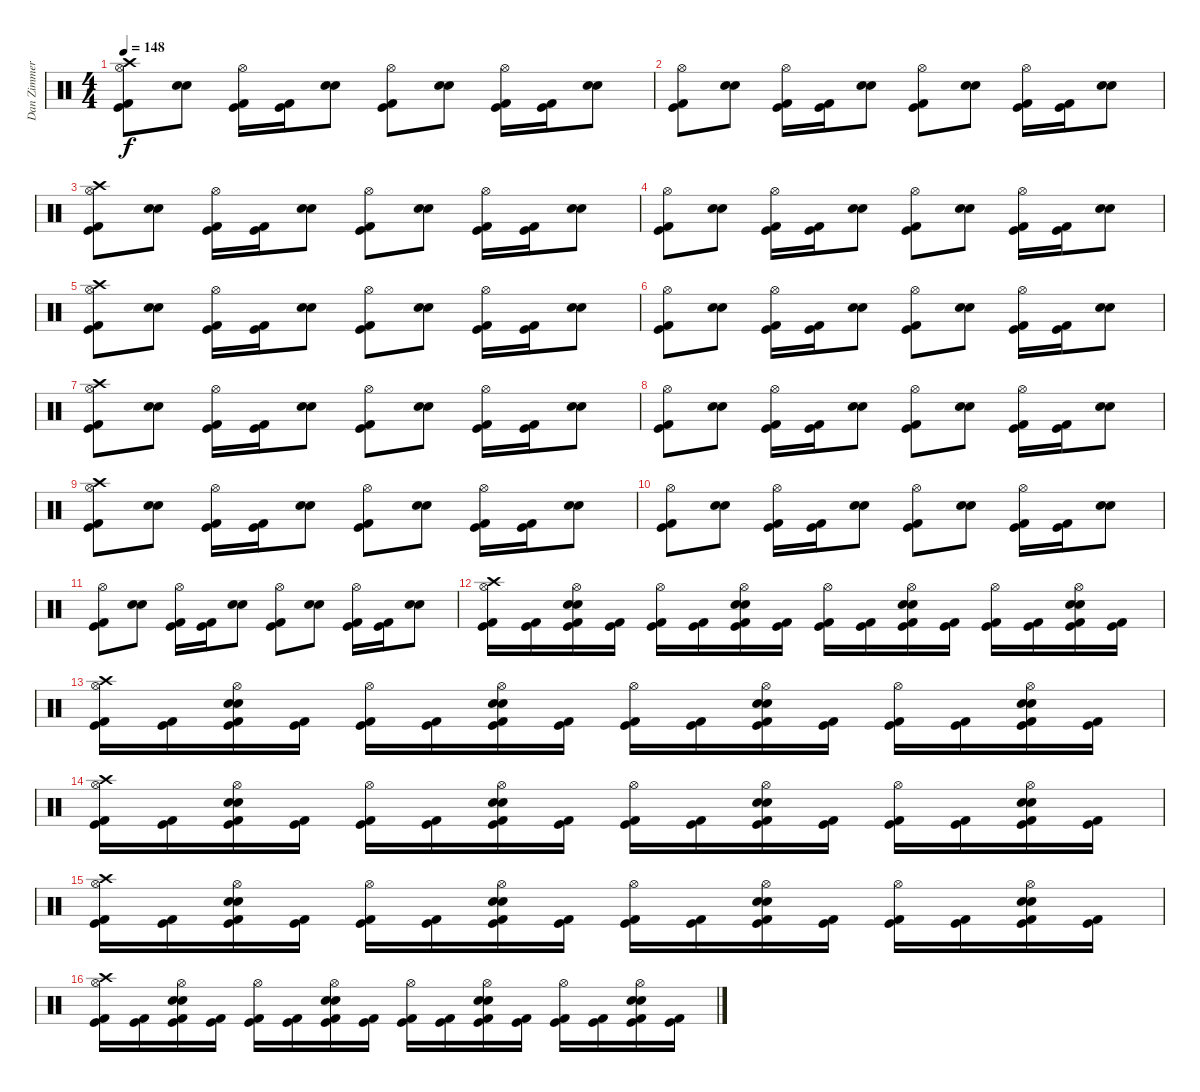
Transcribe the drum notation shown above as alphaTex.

\track ("Dan Zimmerman<Drum>" "Dan Zimmer") {instrument percussion}
\staff {score}
\articulation defaults
\ts (4 4)
\tempo 148
\clef neutral
\ks c
("Hi-Hat (open)" "Crash high (hit)" "Kick (hit) 2" "Kick (hit)").8{dy f} ("Snare (hit) 2" "Electric Snare (hit)").8 ("Hi-Hat (open)" "Kick (hit) 2" "Kick (hit)").16 ("Kick (hit) 2" "Kick (hit)").16 ("Snare (hit) 2" "Electric Snare (hit)").8 ("Hi-Hat (open)" "Kick (hit) 2" "Kick (hit)").8 ("Snare (hit) 2" "Electric Snare (hit)").8 ("Hi-Hat (open)" "Kick (hit) 2" "Kick (hit)").16 ("Kick (hit) 2" "Kick (hit)").16 ("Snare (hit) 2" "Electric Snare (hit)").8 |
("Hi-Hat (open)" "Kick (hit) 2" "Kick (hit)").8 ("Snare (hit) 2" "Electric Snare (hit)").8 ("Hi-Hat (open)" "Kick (hit) 2" "Kick (hit)").16 ("Kick (hit) 2" "Kick (hit)").16 ("Snare (hit) 2" "Electric Snare (hit)").8 ("Hi-Hat (open)" "Kick (hit) 2" "Kick (hit)").8 ("Snare (hit) 2" "Electric Snare (hit)").8 ("Hi-Hat (open)" "Kick (hit) 2" "Kick (hit)").16 ("Kick (hit) 2" "Kick (hit)").16 ("Snare (hit) 2" "Electric Snare (hit)").8 |
("Hi-Hat (open)" "Crash high (hit)" "Kick (hit) 2" "Kick (hit)").8 ("Snare (hit) 2" "Electric Snare (hit)").8 ("Hi-Hat (open)" "Kick (hit) 2" "Kick (hit)").16 ("Kick (hit) 2" "Kick (hit)").16 ("Snare (hit) 2" "Electric Snare (hit)").8 ("Hi-Hat (open)" "Kick (hit) 2" "Kick (hit)").8 ("Snare (hit) 2" "Electric Snare (hit)").8 ("Hi-Hat (open)" "Kick (hit) 2" "Kick (hit)").16 ("Kick (hit) 2" "Kick (hit)").16 ("Snare (hit) 2" "Electric Snare (hit)").8 |
("Hi-Hat (open)" "Kick (hit) 2" "Kick (hit)").8 ("Snare (hit) 2" "Electric Snare (hit)").8 ("Hi-Hat (open)" "Kick (hit) 2" "Kick (hit)").16 ("Kick (hit) 2" "Kick (hit)").16 ("Snare (hit) 2" "Electric Snare (hit)").8 ("Hi-Hat (open)" "Kick (hit) 2" "Kick (hit)").8 ("Snare (hit) 2" "Electric Snare (hit)").8 ("Hi-Hat (open)" "Kick (hit) 2" "Kick (hit)").16 ("Kick (hit) 2" "Kick (hit)").16 ("Snare (hit) 2" "Electric Snare (hit)").8 |
("Hi-Hat (open)" "Crash high (hit)" "Kick (hit) 2" "Kick (hit)").8 ("Snare (hit) 2" "Electric Snare (hit)").8 ("Hi-Hat (open)" "Kick (hit) 2" "Kick (hit)").16 ("Kick (hit) 2" "Kick (hit)").16 ("Snare (hit) 2" "Electric Snare (hit)").8 ("Hi-Hat (open)" "Kick (hit) 2" "Kick (hit)").8 ("Snare (hit) 2" "Electric Snare (hit)").8 ("Hi-Hat (open)" "Kick (hit) 2" "Kick (hit)").16 ("Kick (hit) 2" "Kick (hit)").16 ("Snare (hit) 2" "Electric Snare (hit)").8 |
("Hi-Hat (open)" "Kick (hit) 2" "Kick (hit)").8 ("Snare (hit) 2" "Electric Snare (hit)").8 ("Hi-Hat (open)" "Kick (hit) 2" "Kick (hit)").16 ("Kick (hit) 2" "Kick (hit)").16 ("Snare (hit) 2" "Electric Snare (hit)").8 ("Hi-Hat (open)" "Kick (hit) 2" "Kick (hit)").8 ("Snare (hit) 2" "Electric Snare (hit)").8 ("Hi-Hat (open)" "Kick (hit) 2" "Kick (hit)").16 ("Kick (hit) 2" "Kick (hit)").16 ("Snare (hit) 2" "Electric Snare (hit)").8 |
("Hi-Hat (open)" "Crash high (hit)" "Kick (hit) 2" "Kick (hit)").8 ("Snare (hit) 2" "Electric Snare (hit)").8 ("Hi-Hat (open)" "Kick (hit) 2" "Kick (hit)").16 ("Kick (hit) 2" "Kick (hit)").16 ("Snare (hit) 2" "Electric Snare (hit)").8 ("Hi-Hat (open)" "Kick (hit) 2" "Kick (hit)").8 ("Snare (hit) 2" "Electric Snare (hit)").8 ("Hi-Hat (open)" "Kick (hit) 2" "Kick (hit)").16 ("Kick (hit) 2" "Kick (hit)").16 ("Snare (hit) 2" "Electric Snare (hit)").8 |
("Hi-Hat (open)" "Kick (hit) 2" "Kick (hit)").8 ("Snare (hit) 2" "Electric Snare (hit)").8 ("Hi-Hat (open)" "Kick (hit) 2" "Kick (hit)").16 ("Kick (hit) 2" "Kick (hit)").16 ("Snare (hit) 2" "Electric Snare (hit)").8 ("Hi-Hat (open)" "Kick (hit) 2" "Kick (hit)").8 ("Snare (hit) 2" "Electric Snare (hit)").8 ("Hi-Hat (open)" "Kick (hit) 2" "Kick (hit)").16 ("Kick (hit) 2" "Kick (hit)").16 ("Snare (hit) 2" "Electric Snare (hit)").8 |
("Hi-Hat (open)" "Crash high (hit)" "Kick (hit) 2" "Kick (hit)").8 ("Snare (hit) 2" "Electric Snare (hit)").8 ("Hi-Hat (open)" "Kick (hit) 2" "Kick (hit)").16 ("Kick (hit) 2" "Kick (hit)").16 ("Snare (hit) 2" "Electric Snare (hit)").8 ("Hi-Hat (open)" "Kick (hit) 2" "Kick (hit)").8 ("Snare (hit) 2" "Electric Snare (hit)").8 ("Hi-Hat (open)" "Kick (hit) 2" "Kick (hit)").16 ("Kick (hit) 2" "Kick (hit)").16 ("Snare (hit) 2" "Electric Snare (hit)").8 |
("Hi-Hat (open)" "Kick (hit) 2" "Kick (hit)").8 ("Snare (hit) 2" "Electric Snare (hit)").8 ("Hi-Hat (open)" "Kick (hit) 2" "Kick (hit)").16 ("Kick (hit) 2" "Kick (hit)").16 ("Snare (hit) 2" "Electric Snare (hit)").8 ("Hi-Hat (open)" "Kick (hit) 2" "Kick (hit)").8 ("Snare (hit) 2" "Electric Snare (hit)").8 ("Hi-Hat (open)" "Kick (hit) 2" "Kick (hit)").16 ("Kick (hit) 2" "Kick (hit)").16 ("Snare (hit) 2" "Electric Snare (hit)").8 |
("Hi-Hat (open)" "Kick (hit) 2" "Kick (hit)").8 ("Snare (hit) 2" "Electric Snare (hit)").8 ("Hi-Hat (open)" "Kick (hit) 2" "Kick (hit)").16 ("Kick (hit) 2" "Kick (hit)").16 ("Snare (hit) 2" "Electric Snare (hit)").8 ("Hi-Hat (open)" "Kick (hit) 2" "Kick (hit)").8 ("Snare (hit) 2" "Electric Snare (hit)").8 ("Hi-Hat (open)" "Kick (hit) 2" "Kick (hit)").16 ("Kick (hit) 2" "Kick (hit)").16 ("Snare (hit) 2" "Electric Snare (hit)").8 |
("Hi-Hat (open)" "Crash high (hit)" "Kick (hit) 2" "Kick (hit)").16 ("Kick (hit) 2" "Kick (hit)").16 ("Hi-Hat (open)" "Snare (hit) 2" "Electric Snare (hit)" "Kick (hit) 2" "Kick (hit)").16 ("Kick (hit) 2" "Kick (hit)").16 ("Hi-Hat (open)" "Kick (hit) 2" "Kick (hit)").16 ("Kick (hit) 2" "Kick (hit)").16 ("Hi-Hat (open)" "Snare (hit) 2" "Electric Snare (hit)" "Kick (hit) 2" "Kick (hit)").16 ("Kick (hit) 2" "Kick (hit)").16 ("Hi-Hat (open)" "Kick (hit) 2" "Kick (hit)").16 ("Kick (hit) 2" "Kick (hit)").16 ("Hi-Hat (open)" "Snare (hit) 2" "Electric Snare (hit)" "Kick (hit) 2" "Kick (hit)").16 ("Kick (hit) 2" "Kick (hit)").16 ("Hi-Hat (open)" "Kick (hit) 2" "Kick (hit)").16 ("Kick (hit) 2" "Kick (hit)").16 ("Hi-Hat (open)" "Snare (hit) 2" "Electric Snare (hit)" "Kick (hit) 2" "Kick (hit)").16 ("Kick (hit) 2" "Kick (hit)").16 |
("Hi-Hat (open)" "Crash high (hit)" "Kick (hit) 2" "Kick (hit)").16 ("Kick (hit) 2" "Kick (hit)").16 ("Hi-Hat (open)" "Snare (hit) 2" "Electric Snare (hit)" "Kick (hit) 2" "Kick (hit)").16 ("Kick (hit) 2" "Kick (hit)").16 ("Hi-Hat (open)" "Kick (hit) 2" "Kick (hit)").16 ("Kick (hit) 2" "Kick (hit)").16 ("Hi-Hat (open)" "Snare (hit) 2" "Electric Snare (hit)" "Kick (hit) 2" "Kick (hit)").16 ("Kick (hit) 2" "Kick (hit)").16 ("Hi-Hat (open)" "Kick (hit) 2" "Kick (hit)").16 ("Kick (hit) 2" "Kick (hit)").16 ("Hi-Hat (open)" "Snare (hit) 2" "Electric Snare (hit)" "Kick (hit) 2" "Kick (hit)").16 ("Kick (hit) 2" "Kick (hit)").16 ("Hi-Hat (open)" "Kick (hit) 2" "Kick (hit)").16 ("Kick (hit) 2" "Kick (hit)").16 ("Hi-Hat (open)" "Snare (hit) 2" "Electric Snare (hit)" "Kick (hit) 2" "Kick (hit)").16 ("Kick (hit) 2" "Kick (hit)").16 |
("Hi-Hat (open)" "Crash high (hit)" "Kick (hit) 2" "Kick (hit)").16 ("Kick (hit) 2" "Kick (hit)").16 ("Hi-Hat (open)" "Snare (hit) 2" "Electric Snare (hit)" "Kick (hit) 2" "Kick (hit)").16 ("Kick (hit) 2" "Kick (hit)").16 ("Hi-Hat (open)" "Kick (hit) 2" "Kick (hit)").16 ("Kick (hit) 2" "Kick (hit)").16 ("Hi-Hat (open)" "Snare (hit) 2" "Electric Snare (hit)" "Kick (hit) 2" "Kick (hit)").16 ("Kick (hit) 2" "Kick (hit)").16 ("Hi-Hat (open)" "Kick (hit) 2" "Kick (hit)").16 ("Kick (hit) 2" "Kick (hit)").16 ("Hi-Hat (open)" "Snare (hit) 2" "Electric Snare (hit)" "Kick (hit) 2" "Kick (hit)").16 ("Kick (hit) 2" "Kick (hit)").16 ("Hi-Hat (open)" "Kick (hit) 2" "Kick (hit)").16 ("Kick (hit) 2" "Kick (hit)").16 ("Hi-Hat (open)" "Snare (hit) 2" "Electric Snare (hit)" "Kick (hit) 2" "Kick (hit)").16 ("Kick (hit) 2" "Kick (hit)").16 |
("Hi-Hat (open)" "Crash high (hit)" "Kick (hit) 2" "Kick (hit)").16 ("Kick (hit) 2" "Kick (hit)").16 ("Hi-Hat (open)" "Snare (hit) 2" "Electric Snare (hit)" "Kick (hit) 2" "Kick (hit)").16 ("Kick (hit) 2" "Kick (hit)").16 ("Hi-Hat (open)" "Kick (hit) 2" "Kick (hit)").16 ("Kick (hit) 2" "Kick (hit)").16 ("Hi-Hat (open)" "Snare (hit) 2" "Electric Snare (hit)" "Kick (hit) 2" "Kick (hit)").16 ("Kick (hit) 2" "Kick (hit)").16 ("Hi-Hat (open)" "Kick (hit) 2" "Kick (hit)").16 ("Kick (hit) 2" "Kick (hit)").16 ("Hi-Hat (open)" "Snare (hit) 2" "Electric Snare (hit)" "Kick (hit) 2" "Kick (hit)").16 ("Kick (hit) 2" "Kick (hit)").16 ("Hi-Hat (open)" "Kick (hit) 2" "Kick (hit)").16 ("Kick (hit) 2" "Kick (hit)").16 ("Hi-Hat (open)" "Snare (hit) 2" "Electric Snare (hit)" "Kick (hit) 2" "Kick (hit)").16 ("Kick (hit) 2" "Kick (hit)").16 |
("Hi-Hat (open)" "Crash high (hit)" "Kick (hit) 2" "Kick (hit)").16 ("Kick (hit) 2" "Kick (hit)").16 ("Hi-Hat (open)" "Snare (hit) 2" "Electric Snare (hit)" "Kick (hit) 2" "Kick (hit)").16 ("Kick (hit) 2" "Kick (hit)").16 ("Hi-Hat (open)" "Kick (hit) 2" "Kick (hit)").16 ("Kick (hit) 2" "Kick (hit)").16 ("Hi-Hat (open)" "Snare (hit) 2" "Electric Snare (hit)" "Kick (hit) 2" "Kick (hit)").16 ("Kick (hit) 2" "Kick (hit)").16 ("Hi-Hat (open)" "Kick (hit) 2" "Kick (hit)").16 ("Kick (hit) 2" "Kick (hit)").16 ("Hi-Hat (open)" "Snare (hit) 2" "Electric Snare (hit)" "Kick (hit) 2" "Kick (hit)").16 ("Kick (hit) 2" "Kick (hit)").16 ("Hi-Hat (open)" "Kick (hit) 2" "Kick (hit)").16 ("Kick (hit) 2" "Kick (hit)").16 ("Hi-Hat (open)" "Snare (hit) 2" "Electric Snare (hit)" "Kick (hit) 2" "Kick (hit)").16 ("Kick (hit) 2" "Kick (hit)").16
